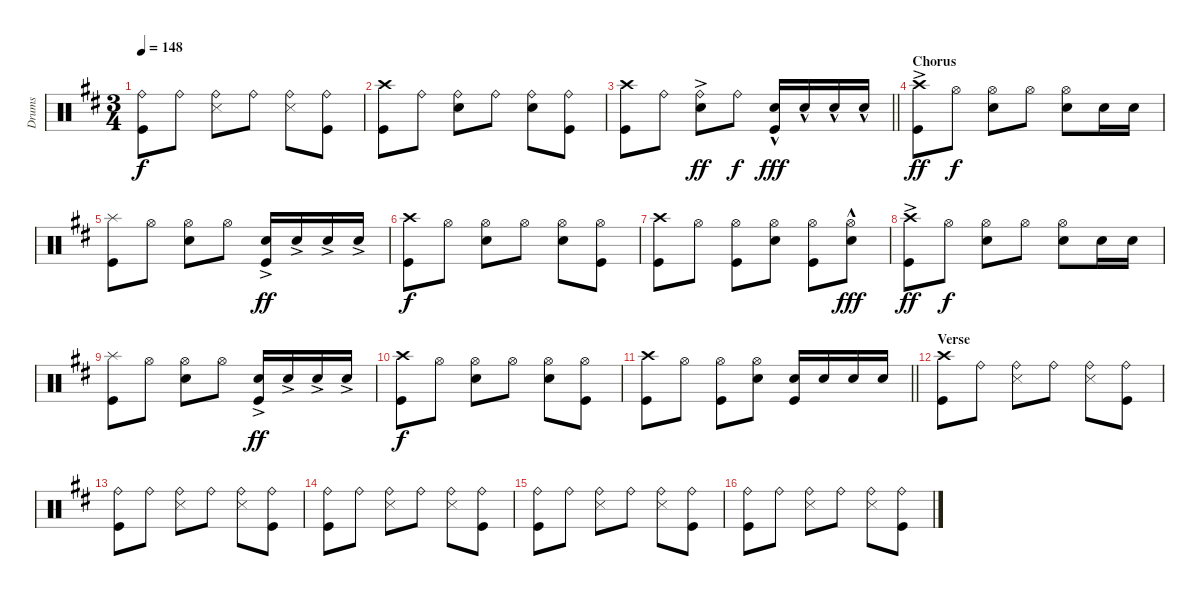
\track ("Drums" "Drums") {instrument percussion}
\staff {score}
\articulation defaults
\ts (3 4)
\tempo 148
\clef neutral
\ks bminor
("Ride (bell)" "Kick (hit)").8{dy f} "Ride (bell)".8 ("Ride (bell)" "Snare (side stick) 3").8 "Ride (bell)".8 ("Ride (bell)" "Snare (side stick) 3").8 ("Ride (bell)" "Kick (hit)").8 |
("Crash high (hit)" "Kick (hit)").8 "Ride (bell)".8 ("Ride (bell)" "Snare (hit) 2").8 "Ride (bell)".8 ("Ride (bell)" "Snare (hit) 2").8 ("Ride (bell)" "Kick (hit)").8 |
\barLineRight lightlight
("Crash high (hit)" "Kick (hit)").8 "Ride (bell)".8 ("Ride (bell)" "Snare (hit) 2"{ac}).8{dy ff} "Ride (bell)".8{dy f} ("Snare (hit) 2"{hac} "Kick (hit)").16{dy fff} "Snare (hit) 2"{hac}.16 "Snare (hit) 2"{hac}.16 "Snare (hit) 2"{hac}.16 |
\section ("" "Chorus")
("Crash high (hit)"{ac} "Kick (hit)").8{dy ff} "Hi-Hat (open)".8{dy f} ("Hi-Hat (open)" "Snare (hit) 2").8 "Hi-Hat (open)".8 ("Hi-Hat (open)" "Snare (hit) 2").8 "Snare (hit) 2".16 "Snare (hit) 2".16 |
("Splash (hit)" "Kick (hit)").8 "Hi-Hat (open)".8 ("Hi-Hat (open)" "Snare (hit) 2").8 "Hi-Hat (open)".8 ("Snare (hit) 2"{ac} "Kick (hit)").16{dy ff} "Snare (hit) 2"{ac}.16 "Snare (hit) 2"{ac}.16 "Snare (hit) 2"{ac}.16 |
("Crash high (hit)" "Kick (hit)").8{dy f} "Hi-Hat (open)".8 ("Hi-Hat (open)" "Snare (hit) 2").8 "Hi-Hat (open)".8 ("Hi-Hat (open)" "Snare (hit) 2").8 ("Hi-Hat (open)" "Kick (hit)").8 |
("Crash high (hit)" "Kick (hit)").8 "Hi-Hat (open)".8 ("Hi-Hat (open)" "Kick (hit)").8 ("Hi-Hat (open)" "Snare (hit) 2").8 ("Hi-Hat (open)" "Kick (hit)").8 ("Hi-Hat (open)"{hac} "Snare (hit) 2").8{dy fff} |
("Crash high (hit)"{ac} "Kick (hit)").8{dy ff} "Hi-Hat (open)".8{dy f} ("Hi-Hat (open)" "Snare (hit) 2").8 "Hi-Hat (open)".8 ("Hi-Hat (open)" "Snare (hit) 2").8 "Snare (hit) 2".16 "Snare (hit) 2".16 |
("Splash (hit)" "Kick (hit)").8 "Hi-Hat (open)".8 ("Hi-Hat (open)" "Snare (hit) 2").8 "Hi-Hat (open)".8 ("Snare (hit) 2"{ac} "Kick (hit)").16{dy ff} "Snare (hit) 2"{ac}.16 "Snare (hit) 2"{ac}.16 "Snare (hit) 2"{ac}.16 |
("Crash high (hit)" "Kick (hit)").8{dy f} "Hi-Hat (open)".8 ("Hi-Hat (open)" "Snare (hit) 2").8 "Hi-Hat (open)".8 ("Hi-Hat (open)" "Snare (hit) 2").8 ("Hi-Hat (open)" "Kick (hit)").8 |
\barLineRight lightlight
("Crash high (hit)" "Kick (hit)").8 "Hi-Hat (open)".8 ("Hi-Hat (open)" "Kick (hit)").8 ("Hi-Hat (open)" "Snare (hit) 2").8 ("Snare (hit) 2" "Kick (hit)").16 "Snare (hit) 2".16 "Snare (hit) 2".16 "Snare (hit) 2".16 |
\section ("" "Verse")
("Crash high (hit)" "Kick (hit)").8 "Ride (bell)".8 ("Ride (bell)" "Snare (side stick) 3").8 "Ride (bell)".8 ("Ride (bell)" "Snare (side stick) 3").8 ("Ride (bell)" "Kick (hit)").8 |
("Ride (bell)" "Kick (hit)").8 "Ride (bell)".8 ("Ride (bell)" "Snare (side stick) 3").8 "Ride (bell)".8 ("Ride (bell)" "Snare (side stick) 3").8 ("Ride (bell)" "Kick (hit)").8 |
("Ride (bell)" "Kick (hit)").8 "Ride (bell)".8 ("Ride (bell)" "Snare (side stick) 3").8 "Ride (bell)".8 ("Ride (bell)" "Snare (side stick) 3").8 ("Ride (bell)" "Kick (hit)").8 |
("Ride (bell)" "Kick (hit)").8 "Ride (bell)".8 ("Ride (bell)" "Snare (side stick) 3").8 "Ride (bell)".8 ("Ride (bell)" "Snare (side stick) 3").8 ("Ride (bell)" "Kick (hit)").8 |
("Ride (bell)" "Kick (hit)").8 "Ride (bell)".8 ("Ride (bell)" "Snare (side stick) 3").8 "Ride (bell)".8 ("Ride (bell)" "Snare (side stick) 3").8 ("Ride (bell)" "Kick (hit)").8
